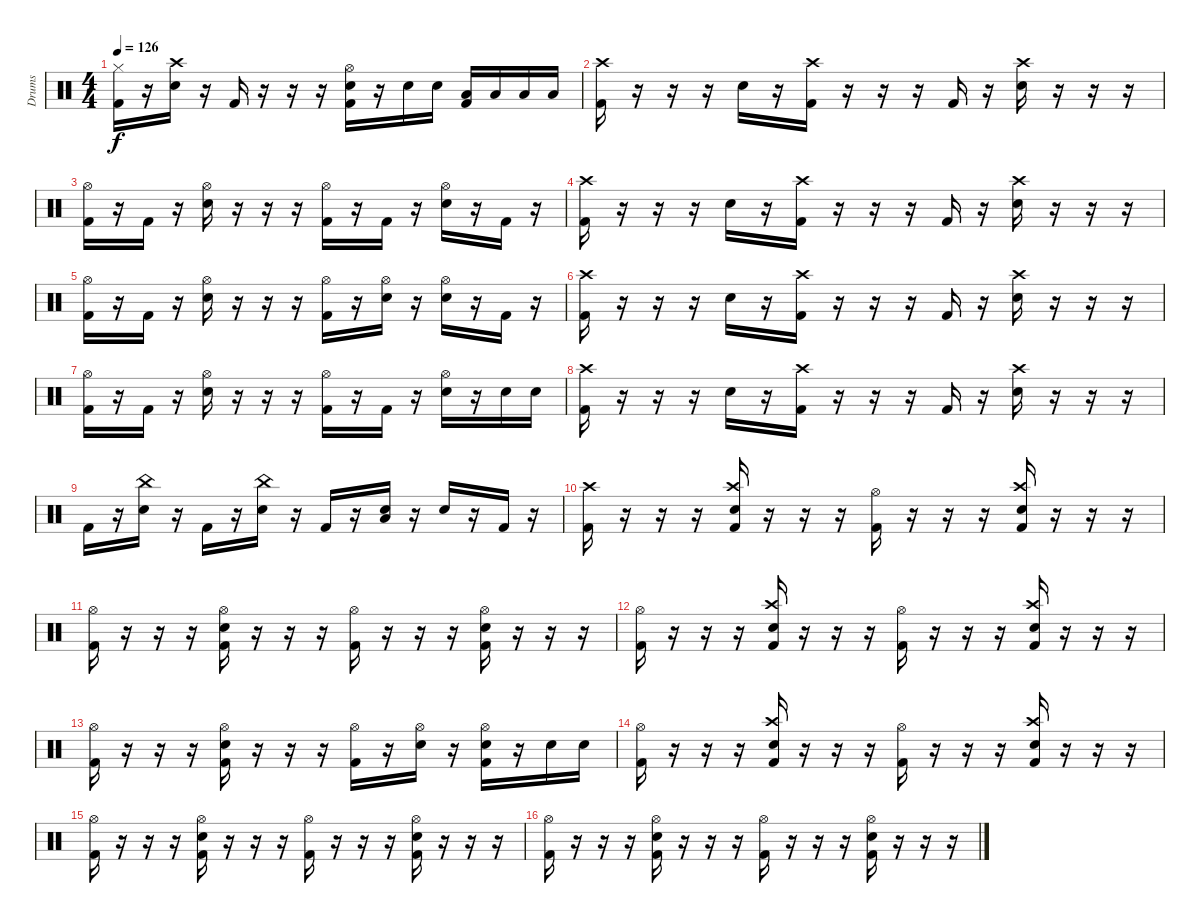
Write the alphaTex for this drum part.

\track ("Drums" "Drums") {instrument percussion}
\staff {score}
\articulation defaults
\ts (4 4)
\tempo 126
\clef neutral
\ks c
("Hi-Hat (closed)" "Kick (hit) 2").16{dy f} r.16 ("Crash high (hit)" "Snare (hit) 2").16 r.16 "Kick (hit) 2".16 r.16 r.16 r.16 ("Hi-Hat (open)" "Snare (hit) 2" "Kick (hit) 2").16 r.16 "Snare (hit) 2".16 "Snare (hit) 2".16 ("Low Tom (hit)" "Kick (hit) 2").16 "Low Tom (hit)".16 "Low Floor Tom (hit)".16 "Low Floor Tom (hit)".16 |
("Crash high (hit)" "Kick (hit) 2").16 r.16 r.16 r.16 "Snare (hit) 2".16 r.16 ("Crash high (hit)" "Kick (hit) 2").16 r.16 r.16 r.16 "Kick (hit) 2".16 r.16 ("Crash high (hit)" "Snare (hit) 2").16 r.16 r.16 r.16 |
("Hi-Hat (open)" "Kick (hit) 2").16 r.16 "Kick (hit) 2".16 r.16 ("Hi-Hat (open)" "Snare (hit) 2").16 r.16 r.16 r.16 ("Hi-Hat (open)" "Kick (hit) 2").16 r.16 "Kick (hit) 2".16 r.16 ("Hi-Hat (open)" "Snare (hit) 2").16 r.16 "Kick (hit) 2".16 r.16 |
("Crash high (hit)" "Kick (hit) 2").16 r.16 r.16 r.16 "Snare (hit) 2".16 r.16 ("Crash high (hit)" "Kick (hit) 2").16 r.16 r.16 r.16 "Kick (hit) 2".16 r.16 ("Crash high (hit)" "Snare (hit) 2").16 r.16 r.16 r.16 |
("Hi-Hat (open)" "Kick (hit) 2").16 r.16 "Kick (hit) 2".16 r.16 ("Hi-Hat (open)" "Snare (hit) 2").16 r.16 r.16 r.16 ("Hi-Hat (open)" "Kick (hit) 2").16 r.16 ("Hi-Hat (open)" "Snare (hit) 2").16 r.16 ("Hi-Hat (open)" "Snare (hit) 2").16 r.16 "Kick (hit) 2".16 r.16 |
("Crash high (hit)" "Kick (hit) 2").16 r.16 r.16 r.16 "Snare (hit) 2".16 r.16 ("Crash high (hit)" "Kick (hit) 2").16 r.16 r.16 r.16 "Kick (hit) 2".16 r.16 ("Crash high (hit)" "Snare (hit) 2").16 r.16 r.16 r.16 |
("Hi-Hat (open)" "Kick (hit) 2").16 r.16 "Kick (hit) 2".16 r.16 ("Hi-Hat (open)" "Snare (hit) 2").16 r.16 r.16 r.16 ("Hi-Hat (open)" "Kick (hit) 2").16 r.16 "Kick (hit) 2".16 r.16 ("Hi-Hat (open)" "Snare (hit) 2").16 r.16 "Snare (hit) 2".16 "Snare (hit) 2".16 |
("Crash high (hit)" "Kick (hit) 2").16 r.16 r.16 r.16 "Snare (hit) 2".16 r.16 ("Crash high (hit)" "Kick (hit) 2").16 r.16 r.16 r.16 "Kick (hit) 2".16 r.16 ("Crash high (hit)" "Snare (hit) 2").16 r.16 r.16 r.16 |
"Kick (hit) 2".16 r.16 ("China (hit)" "Snare (hit) 2").16 r.16 "Kick (hit) 2".16 r.16 ("China (hit)" "Snare (hit) 2").16 r.16 "Kick (hit) 2".16 r.16 ("Low Tom (hit)" "Snare (hit) 2").16 r.16 "Snare (hit) 2".16 r.16 "Kick (hit) 2".16 r.16 |
("Crash high (hit)" "Kick (hit) 2").16 r.16 r.16 r.16 ("Crash high (hit)" "Snare (hit) 2" "Kick (hit) 2").16 r.16 r.16 r.16 ("Hi-Hat (open)" "Kick (hit) 2").16 r.16 r.16 r.16 ("Crash high (hit)" "Snare (hit) 2" "Kick (hit) 2").16 r.16 r.16 r.16 |
("Hi-Hat (open)" "Kick (hit) 2").16 r.16 r.16 r.16 ("Hi-Hat (open)" "Snare (hit) 2" "Kick (hit) 2").16 r.16 r.16 r.16 ("Hi-Hat (open)" "Kick (hit) 2").16 r.16 r.16 r.16 ("Hi-Hat (open)" "Snare (hit) 2" "Kick (hit) 2").16 r.16 r.16 r.16 |
("Hi-Hat (open)" "Kick (hit) 2").16 r.16 r.16 r.16 ("Crash high (hit)" "Snare (hit) 2" "Kick (hit) 2").16 r.16 r.16 r.16 ("Hi-Hat (open)" "Kick (hit) 2").16 r.16 r.16 r.16 ("Crash high (hit)" "Snare (hit) 2" "Kick (hit) 2").16 r.16 r.16 r.16 |
("Hi-Hat (open)" "Kick (hit) 2").16 r.16 r.16 r.16 ("Hi-Hat (open)" "Snare (hit) 2" "Kick (hit) 2").16 r.16 r.16 r.16 ("Hi-Hat (open)" "Kick (hit) 2").16 r.16 ("Hi-Hat (open)" "Snare (hit) 2").16 r.16 ("Hi-Hat (open)" "Snare (hit) 2" "Kick (hit) 2").16 r.16 "Snare (hit) 2".16 "Snare (hit) 2".16 |
("Hi-Hat (open)" "Kick (hit) 2").16 r.16 r.16 r.16 ("Crash high (hit)" "Snare (hit) 2" "Kick (hit) 2").16 r.16 r.16 r.16 ("Hi-Hat (open)" "Kick (hit) 2").16 r.16 r.16 r.16 ("Crash high (hit)" "Snare (hit) 2" "Kick (hit) 2").16 r.16 r.16 r.16 |
("Hi-Hat (open)" "Kick (hit) 2").16 r.16 r.16 r.16 ("Hi-Hat (open)" "Snare (hit) 2" "Kick (hit) 2").16 r.16 r.16 r.16 ("Hi-Hat (open)" "Kick (hit) 2").16 r.16 r.16 r.16 ("Hi-Hat (open)" "Snare (hit) 2" "Kick (hit) 2").16 r.16 r.16 r.16 |
("Hi-Hat (open)" "Kick (hit) 2").16 r.16 r.16 r.16 ("Hi-Hat (open)" "Snare (hit) 2" "Kick (hit) 2").16 r.16 r.16 r.16 ("Hi-Hat (open)" "Kick (hit) 2").16 r.16 r.16 r.16 ("Hi-Hat (open)" "Snare (hit) 2" "Kick (hit) 2").16 r.16 r.16 r.16
